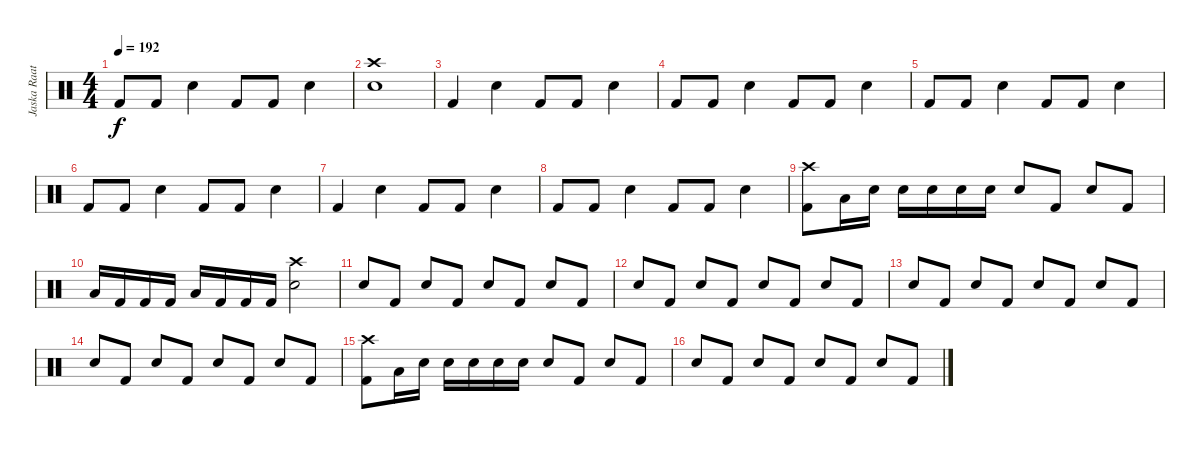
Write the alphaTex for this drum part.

\track ("Jaska Raatikainen " "Jaska Raat") {instrument percussion}
\staff {score}
\articulation defaults
\ts (4 4)
\tempo 192
\clef neutral
\ks c "Kick (hit) 2".8{dy f} "Kick (hit) 2".8 "Snare (hit) 2".4 "Kick (hit) 2".8 "Kick (hit) 2".8 "Snare (hit) 2".4
|
("Crash high (hit)" "Snare (hit) 2").1 |
"Kick (hit) 2".4 "Snare (hit) 2".4 "Kick (hit) 2".8 "Kick (hit) 2".8 "Snare (hit) 2".4 |
"Kick (hit) 2".8 "Kick (hit) 2".8 "Snare (hit) 2".4 "Kick (hit) 2".8 "Kick (hit) 2".8 "Snare (hit) 2".4 |
"Kick (hit) 2".8 "Kick (hit) 2".8 "Snare (hit) 2".4 "Kick (hit) 2".8 "Kick (hit) 2".8 "Snare (hit) 2".4 |
"Kick (hit) 2".8 "Kick (hit) 2".8 "Snare (hit) 2".4 "Kick (hit) 2".8 "Kick (hit) 2".8 "Snare (hit) 2".4 |
"Kick (hit) 2".4 "Snare (hit) 2".4 "Kick (hit) 2".8 "Kick (hit) 2".8 "Snare (hit) 2".4 |
"Kick (hit) 2".8 "Kick (hit) 2".8 "Snare (hit) 2".4 "Kick (hit) 2".8 "Kick (hit) 2".8 "Snare (hit) 2".4 |
("Crash high (hit)" "Kick (hit) 2").8 "Low Floor Tom (hit)".16 "Snare (hit) 2".16 "Snare (hit) 2".16 "Snare (hit) 2".16 "Snare (hit) 2".16 "Snare (hit) 2".16 "Snare (hit) 2".8 "Kick (hit) 2".8 "Snare (hit) 2".8 "Kick (hit) 2".8 |
"Low Floor Tom (hit)".16 "Kick (hit) 2".16 "Kick (hit) 2".16 "Kick (hit) 2".16 "Low Floor Tom (hit)".16 "Kick (hit) 2".16 "Kick (hit) 2".16 "Kick (hit) 2".16 ("Crash high (hit)" "Snare (hit) 2").2 |
"Snare (hit) 2".8 "Kick (hit) 2".8 "Snare (hit) 2".8 "Kick (hit) 2".8 "Snare (hit) 2".8 "Kick (hit) 2".8 "Snare (hit) 2".8 "Kick (hit) 2".8 |
"Snare (hit) 2".8 "Kick (hit) 2".8 "Snare (hit) 2".8 "Kick (hit) 2".8 "Snare (hit) 2".8 "Kick (hit) 2".8 "Snare (hit) 2".8 "Kick (hit) 2".8 |
"Snare (hit) 2".8 "Kick (hit) 2".8 "Snare (hit) 2".8 "Kick (hit) 2".8 "Snare (hit) 2".8 "Kick (hit) 2".8 "Snare (hit) 2".8 "Kick (hit) 2".8 |
"Snare (hit) 2".8 "Kick (hit) 2".8 "Snare (hit) 2".8 "Kick (hit) 2".8 "Snare (hit) 2".8 "Kick (hit) 2".8 "Snare (hit) 2".8 "Kick (hit) 2".8 |
("Crash high (hit)" "Kick (hit) 2").8 "Low Floor Tom (hit)".16 "Snare (hit) 2".16 "Snare (hit) 2".16 "Snare (hit) 2".16 "Snare (hit) 2".16 "Snare (hit) 2".16 "Snare (hit) 2".8 "Kick (hit) 2".8 "Snare (hit) 2".8 "Kick (hit) 2".8 |
"Snare (hit) 2".8 "Kick (hit) 2".8 "Snare (hit) 2".8 "Kick (hit) 2".8 "Snare (hit) 2".8 "Kick (hit) 2".8 "Snare (hit) 2".8 "Kick (hit) 2".8
